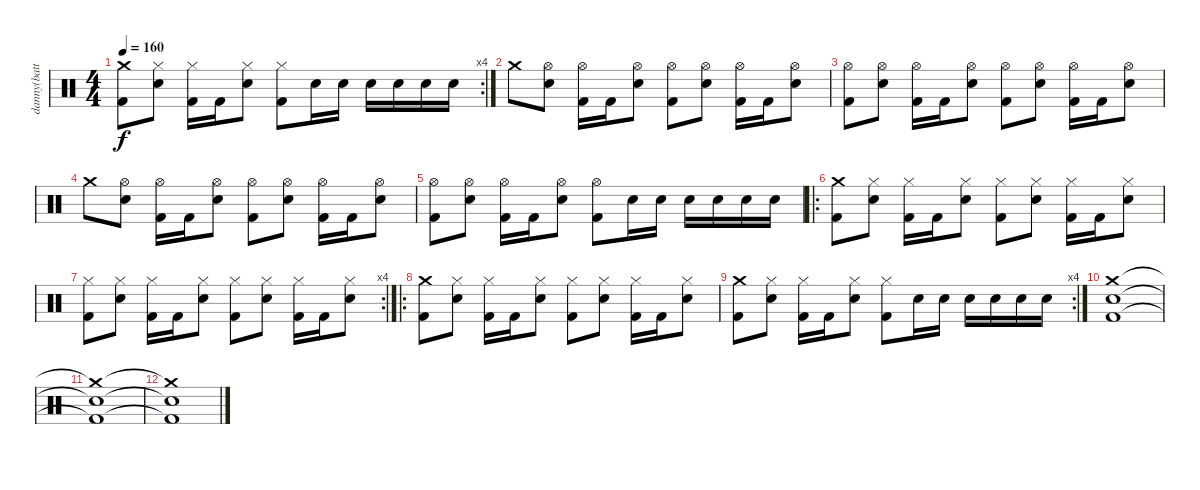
\track ("danny(batterie)" "danny(batt") {instrument percussion}
\staff {score}
\articulation defaults
\rc 4
\ts (4 4)
\tempo 160
\clef neutral
\ks c
("Crash medium (hit)" "Kick (hit) 2").8{dy f} ("Hi-Hat (closed)" "Snare (hit) 2").8 ("Hi-Hat (closed)" "Kick (hit) 2").16 "Kick (hit) 2".16 ("Hi-Hat (closed)" "Snare (hit) 2").8 ("Hi-Hat (closed)" "Kick (hit) 2").8 "Snare (hit) 2".16 "Snare (hit) 2".16 "Snare (hit) 2".16 "Snare (hit) 2".16 "Snare (hit) 2".16 "Snare (hit) 2".16 |
"Crash medium (hit)".8 ("Hi-Hat (open)" "Snare (hit) 2").8 ("Hi-Hat (open)" "Kick (hit) 2").16 "Kick (hit) 2".16 ("Hi-Hat (open)" "Snare (hit) 2").8 ("Hi-Hat (open)" "Kick (hit) 2").8 ("Hi-Hat (open)" "Snare (hit) 2").8 ("Hi-Hat (open)" "Kick (hit) 2").16 "Kick (hit) 2".16 ("Hi-Hat (open)" "Snare (hit) 2").8 |
("Hi-Hat (open)" "Kick (hit) 2").8 ("Hi-Hat (open)" "Snare (hit) 2").8 ("Hi-Hat (open)" "Kick (hit) 2").16 "Kick (hit) 2".16 ("Hi-Hat (open)" "Snare (hit) 2").8 ("Hi-Hat (open)" "Kick (hit) 2").8 ("Hi-Hat (open)" "Snare (hit) 2").8 ("Hi-Hat (open)" "Kick (hit) 2").16 "Kick (hit) 2".16 ("Hi-Hat (open)" "Snare (hit) 2").8 |
"Crash medium (hit)".8 ("Hi-Hat (open)" "Snare (hit) 2").8 ("Hi-Hat (open)" "Kick (hit) 2").16 "Kick (hit) 2".16 ("Hi-Hat (open)" "Snare (hit) 2").8 ("Hi-Hat (open)" "Kick (hit) 2").8 ("Hi-Hat (open)" "Snare (hit) 2").8 ("Hi-Hat (open)" "Kick (hit) 2").16 "Kick (hit) 2".16 ("Hi-Hat (open)" "Snare (hit) 2").8 |
("Hi-Hat (open)" "Kick (hit) 2").8 ("Hi-Hat (open)" "Snare (hit) 2").8 ("Hi-Hat (open)" "Kick (hit) 2").16 "Kick (hit) 2".16 ("Hi-Hat (open)" "Snare (hit) 2").8 ("Hi-Hat (open)" "Kick (hit) 2").8 "Snare (hit) 2".16 "Snare (hit) 2".16 "Snare (hit) 2".16 "Snare (hit) 2".16 "Snare (hit) 2".16 "Snare (hit) 2".16 |
\ro
("Crash medium (hit)" "Kick (hit) 2").8 ("Hi-Hat (closed)" "Snare (hit) 2").8 ("Hi-Hat (closed)" "Kick (hit) 2").16 "Kick (hit) 2".16 ("Hi-Hat (closed)" "Snare (hit) 2").8 ("Hi-Hat (closed)" "Kick (hit) 2").8 ("Hi-Hat (closed)" "Snare (hit) 2").8 ("Hi-Hat (closed)" "Kick (hit) 2").16 "Kick (hit) 2".16 ("Hi-Hat (closed)" "Snare (hit) 2").8 |
\rc 4
("Hi-Hat (closed)" "Kick (hit) 2").8 ("Hi-Hat (closed)" "Snare (hit) 2").8 ("Hi-Hat (closed)" "Kick (hit) 2").16 "Kick (hit) 2".16 ("Hi-Hat (closed)" "Snare (hit) 2").8 ("Hi-Hat (closed)" "Kick (hit) 2").8 ("Hi-Hat (closed)" "Snare (hit) 2").8 ("Hi-Hat (closed)" "Kick (hit) 2").16 "Kick (hit) 2".16 ("Hi-Hat (closed)" "Snare (hit) 2").8 |
\ro
("Crash medium (hit)" "Kick (hit) 2").8 ("Hi-Hat (closed)" "Snare (hit) 2").8 ("Hi-Hat (closed)" "Kick (hit) 2").16 "Kick (hit) 2".16 ("Hi-Hat (closed)" "Snare (hit) 2").8 ("Hi-Hat (closed)" "Kick (hit) 2").8 ("Hi-Hat (closed)" "Snare (hit) 2").8 ("Hi-Hat (closed)" "Kick (hit) 2").16 "Kick (hit) 2".16 ("Hi-Hat (closed)" "Snare (hit) 2").8 |
\rc 4
("Crash medium (hit)" "Kick (hit) 2").8 ("Hi-Hat (closed)" "Snare (hit) 2").8 ("Hi-Hat (closed)" "Kick (hit) 2").16 "Kick (hit) 2".16 ("Hi-Hat (closed)" "Snare (hit) 2").8 ("Hi-Hat (closed)" "Kick (hit) 2").8 "Snare (hit) 2".16 "Snare (hit) 2".16 "Snare (hit) 2".16 "Snare (hit) 2".16 "Snare (hit) 2".16 "Snare (hit) 2".16 |
("Crash medium (hit)" "Snare (hit) 2" "Kick (hit) 2").1 |
("Crash medium (hit)"{t} "Snare (hit) 2"{t} "Kick (hit) 2"{t}).1 |
("Crash medium (hit)"{t} "Snare (hit) 2"{t} "Kick (hit) 2"{t}).1
